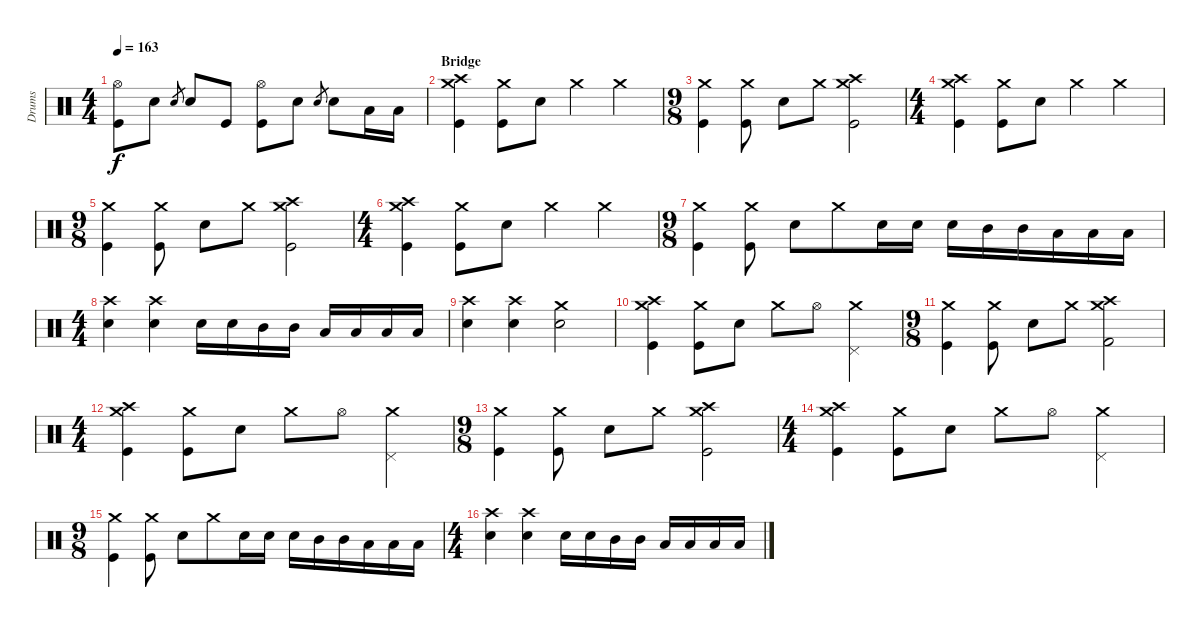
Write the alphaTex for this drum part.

\track ("Drums" "Drums") {instrument percussion}
\staff {score}
\articulation defaults
\ts (4 4)
\tempo 163
\clef neutral
\ks c
("Hi-Hat (open)" "Kick (hit)").8{dy f} "Electric Snare (hit)".8 "Electric Snare (hit)".8{gr} "Electric Snare (hit)".8 "Kick (hit)".8 ("Hi-Hat (open)" "Kick (hit)").8 "Electric Snare (hit)".8 "Electric Snare (hit)".8{gr} "Electric Snare (hit)".8 "Low Tom (hit)".16 "Low Tom (hit)".16 |
\section ("" "Bridge")
("Crash high (hit)" "Crash medium (hit)" "Kick (hit)").4 ("Crash medium (hit)" "Kick (hit)").8 "Electric Snare (hit)".8 "Crash medium (hit)".4 "Crash medium (hit)".4 |
\ts (9 8)
("Crash medium (hit)" "Kick (hit)").4 ("Crash medium (hit)" "Kick (hit)").8 "Electric Snare (hit)".8 "Crash medium (hit)".8 ("Crash high (hit)" "Crash medium (hit)" "Kick (hit)").2 |
\ts (4 4)
("Crash high (hit)" "Crash medium (hit)" "Kick (hit)").4 ("Crash medium (hit)" "Kick (hit)").8 "Electric Snare (hit)".8 "Crash medium (hit)".4 "Crash medium (hit)".4 |
\ts (9 8)
("Crash medium (hit)" "Kick (hit)").4 ("Crash medium (hit)" "Kick (hit)").8 "Electric Snare (hit)".8 "Crash medium (hit)".8 ("Crash high (hit)" "Crash medium (hit)" "Kick (hit)").2 |
\ts (4 4)
("Crash high (hit)" "Crash medium (hit)" "Kick (hit)").4 ("Crash medium (hit)" "Kick (hit)").8 "Electric Snare (hit)".8 "Crash medium (hit)".4 "Crash medium (hit)".4 |
\ts (9 8)
("Crash medium (hit)" "Kick (hit)").4 ("Crash medium (hit)" "Kick (hit)").8 "Electric Snare (hit)".8 "Crash medium (hit)".8 "Electric Snare (hit)".16 "Electric Snare (hit)".16 "Electric Snare (hit)".16 "Mid Tom (hit)".16 "Mid Tom (hit)".16 "Low Tom (hit)".16 "Low Tom (hit)".16 "Low Tom (hit)".16 |
\ts (4 4)
("Crash high (hit)" "Electric Snare (hit)").4 ("Crash high (hit)" "Electric Snare (hit)").4 "Electric Snare (hit)".16 "Electric Snare (hit)".16 "Mid Tom (hit)".16 "Mid Tom (hit)".16 "Low Tom (hit)".16 "Low Tom (hit)".16 "Low Tom (hit)".16 "Low Tom (hit)".16 |
("Crash high (hit)" "Electric Snare (hit)").4 ("Crash high (hit)" "Electric Snare (hit)").4 ("Crash medium (hit)" "Electric Snare (hit)").2 |
("Crash high (hit)" "Crash medium (hit)" "Kick (hit)").4 ("Crash medium (hit)" "Kick (hit)").8 "Electric Snare (hit)".8 "Crash medium (hit)".8 "Hi-Hat (open)".8 ("Crash medium (hit)" "Pedal Hi-Hat (hit)").4 |
\ts (9 8)
("Crash medium (hit)" "Kick (hit)").4 ("Crash medium (hit)" "Kick (hit)").8 "Electric Snare (hit)".8 "Crash medium (hit)".8 ("Crash high (hit)" "Crash medium (hit)" "Kick (hit) 2").2 |
\ts (4 4)
("Crash high (hit)" "Crash medium (hit)" "Kick (hit)").4 ("Crash medium (hit)" "Kick (hit)").8 "Electric Snare (hit)".8 "Crash medium (hit)".8 "Hi-Hat (open)".8 ("Crash medium (hit)" "Pedal Hi-Hat (hit)").4 |
\ts (9 8)
("Crash medium (hit)" "Kick (hit)").4 ("Crash medium (hit)" "Kick (hit)").8 "Electric Snare (hit)".8 "Crash medium (hit)".8 ("Crash high (hit)" "Crash medium (hit)" "Kick (hit)").2 |
\ts (4 4)
("Crash high (hit)" "Crash medium (hit)" "Kick (hit)").4 ("Crash medium (hit)" "Kick (hit)").8 "Electric Snare (hit)".8 "Crash medium (hit)".8 "Hi-Hat (open)".8 ("Crash medium (hit)" "Pedal Hi-Hat (hit)").4 |
\ts (9 8)
("Crash medium (hit)" "Kick (hit)").4 ("Crash medium (hit)" "Kick (hit)").8 "Electric Snare (hit)".8 "Crash medium (hit)".8 "Electric Snare (hit)".16 "Electric Snare (hit)".16 "Electric Snare (hit)".16 "Mid Tom (hit)".16 "Mid Tom (hit)".16 "Low Tom (hit)".16 "Low Tom (hit)".16 "Low Tom (hit)".16 |
\ts (4 4)
("Crash high (hit)" "Electric Snare (hit)").4 ("Crash high (hit)" "Electric Snare (hit)").4 "Electric Snare (hit)".16 "Electric Snare (hit)".16 "Mid Tom (hit)".16 "Mid Tom (hit)".16 "Low Tom (hit)".16 "Low Tom (hit)".16 "Low Tom (hit)".16 "Low Tom (hit)".16
